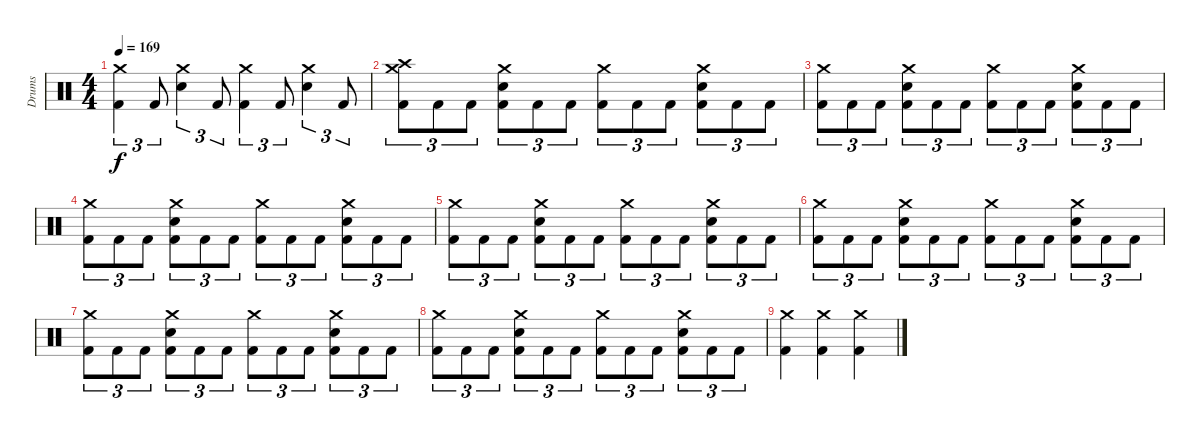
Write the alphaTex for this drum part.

\track ("Drums" "Drums") {instrument percussion}
\staff {score}
\articulation defaults
\ts (4 4)
\tempo 169
\clef neutral
\ks c
("Crash medium (hit)" "Kick (hit) 2").4{tu (3 2) dy f} "Kick (hit) 2".8{tu (3 2)} ("Crash medium (hit)" "Snare (hit) 2").4{tu (3 2)} "Kick (hit) 2".8{tu (3 2)} ("Crash medium (hit)" "Kick (hit) 2").4{tu (3 2)} "Kick (hit) 2".8{tu (3 2)} ("Crash medium (hit)" "Snare (hit) 2").4{tu (3 2)} "Kick (hit) 2".8{tu (3 2)} |
("Crash high (hit)" "Crash medium (hit)" "Kick (hit) 2").8{tu (3 2)} "Kick (hit) 2".8{tu (3 2)} "Kick (hit) 2".8{tu (3 2)} ("Crash medium (hit)" "Snare (hit) 2" "Kick (hit) 2").8{tu (3 2)} "Kick (hit) 2".8{tu (3 2)} "Kick (hit) 2".8{tu (3 2)} ("Crash medium (hit)" "Kick (hit) 2").8{tu (3 2)} "Kick (hit) 2".8{tu (3 2)} "Kick (hit) 2".8{tu (3 2)} ("Crash medium (hit)" "Snare (hit) 2" "Kick (hit) 2").8{tu (3 2)} "Kick (hit) 2".8{tu (3 2)} "Kick (hit) 2".8{tu (3 2)} |
("Crash medium (hit)" "Kick (hit) 2").8{tu (3 2)} "Kick (hit) 2".8{tu (3 2)} "Kick (hit) 2".8{tu (3 2)} ("Crash medium (hit)" "Snare (hit) 2" "Kick (hit) 2").8{tu (3 2)} "Kick (hit) 2".8{tu (3 2)} "Kick (hit) 2".8{tu (3 2)} ("Crash medium (hit)" "Kick (hit) 2").8{tu (3 2)} "Kick (hit) 2".8{tu (3 2)} "Kick (hit) 2".8{tu (3 2)} ("Crash medium (hit)" "Snare (hit) 2" "Kick (hit) 2").8{tu (3 2)} "Kick (hit) 2".8{tu (3 2)} "Kick (hit) 2".8{tu (3 2)} |
("Crash medium (hit)" "Kick (hit) 2").8{tu (3 2)} "Kick (hit) 2".8{tu (3 2)} "Kick (hit) 2".8{tu (3 2)} ("Crash medium (hit)" "Snare (hit) 2" "Kick (hit) 2").8{tu (3 2)} "Kick (hit) 2".8{tu (3 2)} "Kick (hit) 2".8{tu (3 2)} ("Crash medium (hit)" "Kick (hit) 2").8{tu (3 2)} "Kick (hit) 2".8{tu (3 2)} "Kick (hit) 2".8{tu (3 2)} ("Crash medium (hit)" "Snare (hit) 2" "Kick (hit) 2").8{tu (3 2)} "Kick (hit) 2".8{tu (3 2)} "Kick (hit) 2".8{tu (3 2)} |
("Crash medium (hit)" "Kick (hit) 2").8{tu (3 2)} "Kick (hit) 2".8{tu (3 2)} "Kick (hit) 2".8{tu (3 2)} ("Crash medium (hit)" "Snare (hit) 2" "Kick (hit) 2").8{tu (3 2)} "Kick (hit) 2".8{tu (3 2)} "Kick (hit) 2".8{tu (3 2)} ("Crash medium (hit)" "Kick (hit) 2").8{tu (3 2)} "Kick (hit) 2".8{tu (3 2)} "Kick (hit) 2".8{tu (3 2)} ("Crash medium (hit)" "Snare (hit) 2" "Kick (hit) 2").8{tu (3 2)} "Kick (hit) 2".8{tu (3 2)} "Kick (hit) 2".8{tu (3 2)} |
("Crash medium (hit)" "Kick (hit) 2").8{tu (3 2)} "Kick (hit) 2".8{tu (3 2)} "Kick (hit) 2".8{tu (3 2)} ("Crash medium (hit)" "Snare (hit) 2" "Kick (hit) 2").8{tu (3 2)} "Kick (hit) 2".8{tu (3 2)} "Kick (hit) 2".8{tu (3 2)} ("Crash medium (hit)" "Kick (hit) 2").8{tu (3 2)} "Kick (hit) 2".8{tu (3 2)} "Kick (hit) 2".8{tu (3 2)} ("Crash medium (hit)" "Snare (hit) 2" "Kick (hit) 2").8{tu (3 2)} "Kick (hit) 2".8{tu (3 2)} "Kick (hit) 2".8{tu (3 2)} |
("Crash medium (hit)" "Kick (hit) 2").8{tu (3 2)} "Kick (hit) 2".8{tu (3 2)} "Kick (hit) 2".8{tu (3 2)} ("Crash medium (hit)" "Snare (hit) 2" "Kick (hit) 2").8{tu (3 2)} "Kick (hit) 2".8{tu (3 2)} "Kick (hit) 2".8{tu (3 2)} ("Crash medium (hit)" "Kick (hit) 2").8{tu (3 2)} "Kick (hit) 2".8{tu (3 2)} "Kick (hit) 2".8{tu (3 2)} ("Crash medium (hit)" "Snare (hit) 2" "Kick (hit) 2").8{tu (3 2)} "Kick (hit) 2".8{tu (3 2)} "Kick (hit) 2".8{tu (3 2)} |
("Crash medium (hit)" "Kick (hit) 2").8{tu (3 2)} "Kick (hit) 2".8{tu (3 2)} "Kick (hit) 2".8{tu (3 2)} ("Crash medium (hit)" "Snare (hit) 2" "Kick (hit) 2").8{tu (3 2)} "Kick (hit) 2".8{tu (3 2)} "Kick (hit) 2".8{tu (3 2)} ("Crash medium (hit)" "Kick (hit) 2").8{tu (3 2)} "Kick (hit) 2".8{tu (3 2)} "Kick (hit) 2".8{tu (3 2)} ("Crash medium (hit)" "Snare (hit) 2" "Kick (hit) 2").8{tu (3 2)} "Kick (hit) 2".8{tu (3 2)} "Kick (hit) 2".8{tu (3 2)} |
("Crash medium (hit)" "Kick (hit) 2").4 ("Crash medium (hit)" "Kick (hit) 2").4 ("Crash medium (hit)" "Kick (hit) 2").4
